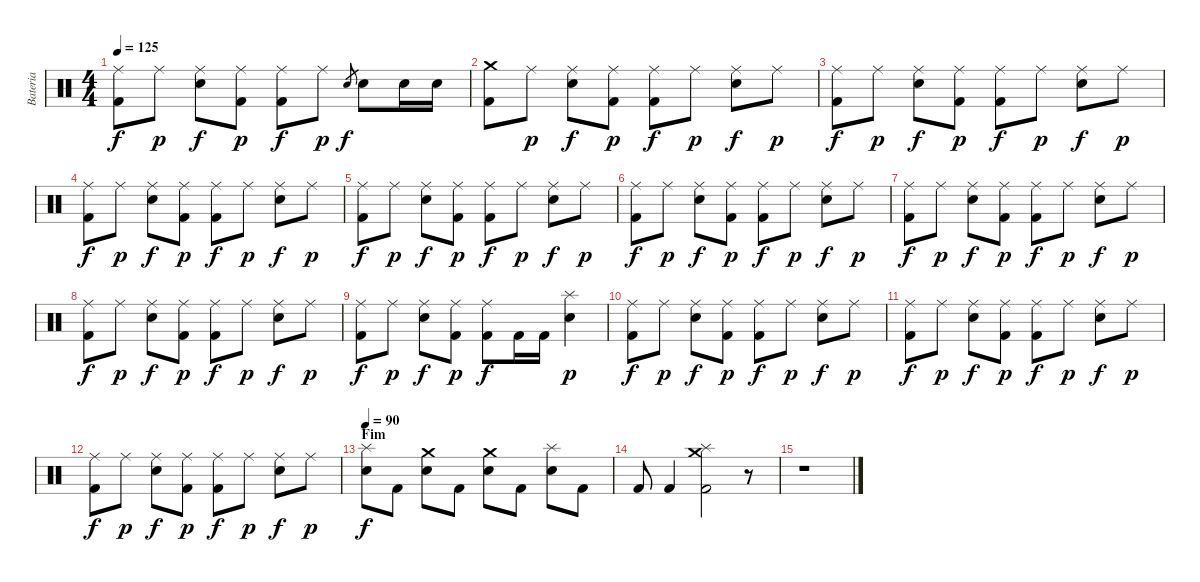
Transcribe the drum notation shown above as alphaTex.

\track ("Bateria" "Bateria") {instrument percussion}
\staff {score}
\articulation defaults
\ts (4 4)
\tempo 125
\clef neutral
\ks c
("Ride (middle)" "Kick (hit) 2").8{dy f} "Ride (middle)".8{dy p} ("Ride (middle)" "Electric Snare (hit)").8{dy f} ("Ride (middle)" "Kick (hit) 2").8{dy p} ("Ride (middle)" "Kick (hit) 2").8{dy f} "Ride (middle)".8{dy p} "Electric Snare (hit)".8{gr dy f} "Electric Snare (hit)".8 "Electric Snare (hit)".16 "Electric Snare (hit)".16 |
("Crash medium (hit)" "Kick (hit) 2").8 "Ride (middle)".8{dy p} ("Ride (middle)" "Electric Snare (hit)").8{dy f} ("Ride (middle)" "Kick (hit) 2").8{dy p} ("Ride (middle)" "Kick (hit) 2").8{dy f} "Ride (middle)".8{dy p} ("Ride (middle)" "Electric Snare (hit)").8{dy f} "Ride (middle)".8{dy p} |
("Ride (middle)" "Kick (hit) 2").8{dy f} "Ride (middle)".8{dy p} ("Ride (middle)" "Electric Snare (hit)").8{dy f} ("Ride (middle)" "Kick (hit) 2").8{dy p} ("Ride (middle)" "Kick (hit) 2").8{dy f} "Ride (middle)".8{dy p} ("Ride (middle)" "Electric Snare (hit)").8{dy f} "Ride (middle)".8{dy p} |
("Ride (middle)" "Kick (hit) 2").8{dy f} "Ride (middle)".8{dy p} ("Ride (middle)" "Electric Snare (hit)").8{dy f} ("Ride (middle)" "Kick (hit) 2").8{dy p} ("Ride (middle)" "Kick (hit) 2").8{dy f} "Ride (middle)".8{dy p} ("Ride (middle)" "Electric Snare (hit)").8{dy f} "Ride (middle)".8{dy p} |
("Ride (middle)" "Kick (hit) 2").8{dy f} "Ride (middle)".8{dy p} ("Ride (middle)" "Electric Snare (hit)").8{dy f} ("Ride (middle)" "Kick (hit) 2").8{dy p} ("Ride (middle)" "Kick (hit) 2").8{dy f} "Ride (middle)".8{dy p} ("Ride (middle)" "Electric Snare (hit)").8{dy f} "Ride (middle)".8{dy p} |
("Ride (middle)" "Kick (hit) 2").8{dy f} "Ride (middle)".8{dy p} ("Ride (middle)" "Electric Snare (hit)").8{dy f} ("Ride (middle)" "Kick (hit) 2").8{dy p} ("Ride (middle)" "Kick (hit) 2").8{dy f} "Ride (middle)".8{dy p} ("Ride (middle)" "Electric Snare (hit)").8{dy f} "Ride (middle)".8{dy p} |
("Ride (middle)" "Kick (hit) 2").8{dy f} "Ride (middle)".8{dy p} ("Ride (middle)" "Electric Snare (hit)").8{dy f} ("Ride (middle)" "Kick (hit) 2").8{dy p} ("Ride (middle)" "Kick (hit) 2").8{dy f} "Ride (middle)".8{dy p} ("Ride (middle)" "Electric Snare (hit)").8{dy f} "Ride (middle)".8{dy p} |
("Ride (middle)" "Kick (hit) 2").8{dy f} "Ride (middle)".8{dy p} ("Ride (middle)" "Electric Snare (hit)").8{dy f} ("Ride (middle)" "Kick (hit) 2").8{dy p} ("Ride (middle)" "Kick (hit) 2").8{dy f} "Ride (middle)".8{dy p} ("Ride (middle)" "Electric Snare (hit)").8{dy f} "Ride (middle)".8{dy p} |
("Ride (middle)" "Kick (hit) 2").8{dy f} "Ride (middle)".8{dy p} ("Ride (middle)" "Electric Snare (hit)").8{dy f} ("Ride (middle)" "Kick (hit) 2").8{dy p} ("Ride (middle)" "Kick (hit) 2").8{dy f} "Kick (hit) 2".16 "Kick (hit) 2".16 ("Splash (hit)" "Electric Snare (hit)").4{dy p} |
("Ride (middle)" "Kick (hit) 2").8{dy f} "Ride (middle)".8{dy p} ("Ride (middle)" "Electric Snare (hit)").8{dy f} ("Ride (middle)" "Kick (hit) 2").8{dy p} ("Ride (middle)" "Kick (hit) 2").8{dy f} "Ride (middle)".8{dy p} ("Ride (middle)" "Electric Snare (hit)").8{dy f} "Ride (middle)".8{dy p} |
("Ride (middle)" "Kick (hit) 2").8{dy f} "Ride (middle)".8{dy p} ("Ride (middle)" "Electric Snare (hit)").8{dy f} ("Ride (middle)" "Kick (hit) 2").8{dy p} ("Ride (middle)" "Kick (hit) 2").8{dy f} "Ride (middle)".8{dy p} ("Ride (middle)" "Electric Snare (hit)").8{dy f} "Ride (middle)".8{dy p} |
("Ride (middle)" "Kick (hit) 2").8{dy f} "Ride (middle)".8{dy p} ("Ride (middle)" "Electric Snare (hit)").8{dy f} ("Ride (middle)" "Kick (hit) 2").8{dy p} ("Ride (middle)" "Kick (hit) 2").8{dy f} "Ride (middle)".8{dy p} ("Ride (middle)" "Electric Snare (hit)").8{dy f} "Ride (middle)".8{dy p} |
\section ("" "Fim")
\tempo 90
("Electric Snare (hit)" "Splash (hit)").8{dy f} "Kick (hit) 2".8 ("Electric Snare (hit)" "Crash medium (hit)").8 "Kick (hit) 2".8 ("Electric Snare (hit)" "Crash medium (hit)").8 "Kick (hit) 2".8 ("Electric Snare (hit)" "Splash (hit)").8 "Kick (hit) 2".8 |
"Kick (hit) 2".8 "Kick (hit) 2".4 ("Crash medium (hit)" "Splash (hit)" "Kick (hit) 2").2 r.8 |
r.1
